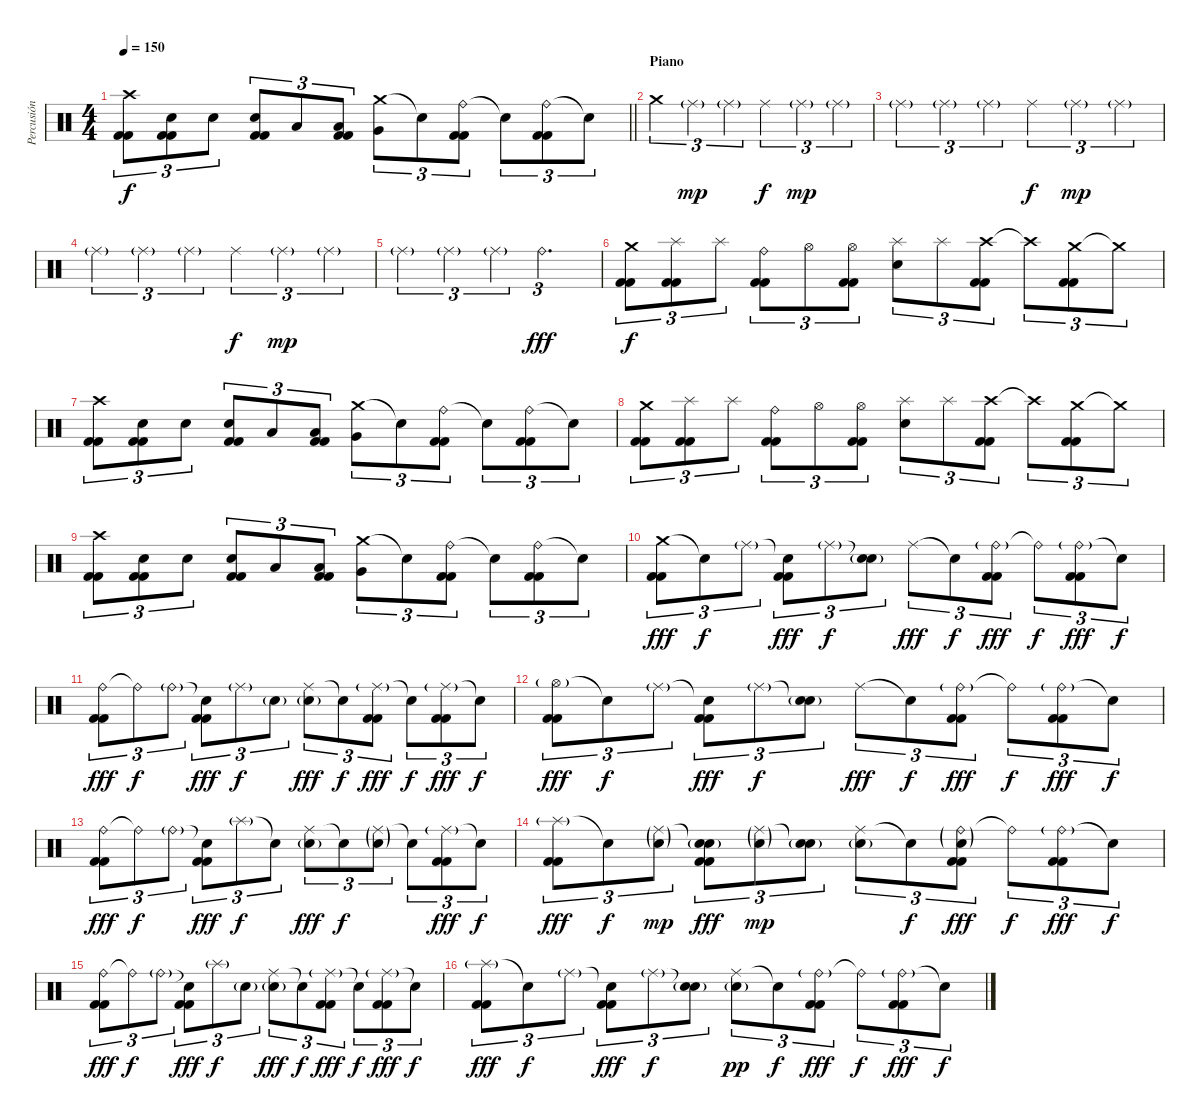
\track ("Percusión" "Percusión") {instrument percussion}
\staff {score}
\articulation defaults
\ts (4 4)
\tempo 150
\clef neutral
\barLineRight lightlight
\ks c
("Crash high (hit)" "Kick (hit) 2" "Kick (hit) 2").8{tu (3 2) dy f} ("Electric Snare (hit)" "Kick (hit) 2" "Kick (hit) 2").8{tu (3 2)} "Electric Snare (hit)".8{tu (3 2)} ("Electric Snare (hit)" "Kick (hit) 2" "Kick (hit) 2").8{tu (3 2)} "Low Tom (hit)".8{tu (3 2)} ("Low Tom (hit)" "Kick (hit) 2" "Kick (hit) 2").8{tu (3 2)} ("Crash medium (hit)" "Very Low Tom (hit)").8{tu (3 2)} "Snare (hit)"{t}.8{tu (3 2)} ("Ride (bell)" "Kick (hit) 2" "Kick (hit) 2").8{tu (3 2)} "Snare (hit)"{t}.8{tu (3 2)} ("Ride (bell)" "Kick (hit) 2" "Kick (hit) 2").8{tu (3 2)} "Snare (hit)"{t}.8{tu (3 2)} |
\section ("" "Piano")
"Crash medium (hit)".4{tu (3 2)} "Ride (middle)"{g}.4{tu (3 2) dy mp} "Ride (middle)"{g}.4{tu (3 2)} "Ride (middle)".4{tu (3 2) dy f} "Ride (middle)"{g}.4{tu (3 2) dy mp} "Ride (middle)"{g}.4{tu (3 2)} |
"Ride (middle)"{g}.4{tu (3 2)} "Ride (middle)"{g}.4{tu (3 2)} "Ride (middle)"{g}.4{tu (3 2)} "Ride (middle)".4{tu (3 2) dy f} "Ride (middle)"{g}.4{tu (3 2) dy mp} "Ride (middle)"{g}.4{tu (3 2)} |
"Ride (middle)"{g}.4{tu (3 2)} "Ride (middle)"{g}.4{tu (3 2)} "Ride (middle)"{g}.4{tu (3 2)} "Ride (middle)".4{tu (3 2) dy f} "Ride (middle)"{g}.4{tu (3 2) dy mp} "Ride (middle)"{g}.4{tu (3 2)} |
"Ride (middle)"{g}.4{tu (3 2)} "Ride (middle)"{g}.4{tu (3 2)} "Ride (middle)"{g}.4{tu (3 2)} "Ride (bell)".2{d tu (3 2) dy fff} |
("Crash medium (hit)" "Kick (hit) 2" "Kick (hit) 2").8{tu (3 2) dy f} ("Splash (hit)" "Kick (hit) 2" "Kick (hit) 2").8{tu (3 2)} "Splash (hit)".8{tu (3 2)} ("Ride (bell)" "Kick (hit) 2" "Kick (hit) 2").8{tu (3 2)} "Hi-Hat (open)".8{tu (3 2)} ("Hi-Hat (open)" "Kick (hit) 2" "Kick (hit) 2").8{tu (3 2)} ("Splash (hit)" "Electric Snare (hit)").8{tu (3 2)} "Splash (hit)".8{tu (3 2)} ("Crash high (hit)" "Kick (hit) 2" "Kick (hit) 2").8{tu (3 2)} "Crash high (hit)"{t}.8{tu (3 2)} ("Crash medium (hit)" "Kick (hit) 2" "Kick (hit) 2").8{tu (3 2)} "Crash medium (hit)"{t}.8{tu (3 2)} |
("Crash high (hit)" "Kick (hit) 2" "Kick (hit) 2").8{tu (3 2)} ("Electric Snare (hit)" "Kick (hit) 2" "Kick (hit) 2").8{tu (3 2)} "Electric Snare (hit)".8{tu (3 2)} ("Electric Snare (hit)" "Kick (hit) 2" "Kick (hit) 2").8{tu (3 2)} "Low Tom (hit)".8{tu (3 2)} ("Low Tom (hit)" "Kick (hit) 2" "Kick (hit) 2").8{tu (3 2)} ("Crash medium (hit)" "Very Low Tom (hit)").8{tu (3 2)} "Snare (hit)"{t}.8{tu (3 2)} ("Ride (bell)" "Kick (hit) 2" "Kick (hit) 2").8{tu (3 2)} "Snare (hit)"{t}.8{tu (3 2)} ("Ride (bell)" "Kick (hit) 2" "Kick (hit) 2").8{tu (3 2)} "Snare (hit)"{t}.8{tu (3 2)} |
("Crash medium (hit)" "Kick (hit) 2" "Kick (hit) 2").8{tu (3 2)} ("Splash (hit)" "Kick (hit) 2" "Kick (hit) 2").8{tu (3 2)} "Splash (hit)".8{tu (3 2)} ("Ride (bell)" "Kick (hit) 2" "Kick (hit) 2").8{tu (3 2)} "Hi-Hat (open)".8{tu (3 2)} ("Hi-Hat (open)" "Kick (hit) 2" "Kick (hit) 2").8{tu (3 2)} ("Splash (hit)" "Electric Snare (hit)").8{tu (3 2)} "Splash (hit)".8{tu (3 2)} ("Crash high (hit)" "Kick (hit) 2" "Kick (hit) 2").8{tu (3 2)} "Crash high (hit)"{t}.8{tu (3 2)} ("Crash medium (hit)" "Kick (hit) 2" "Kick (hit) 2").8{tu (3 2)} "Crash medium (hit)"{t}.8{tu (3 2)} |
("Crash high (hit)" "Kick (hit) 2" "Kick (hit) 2").8{tu (3 2)} ("Electric Snare (hit)" "Kick (hit) 2" "Kick (hit) 2").8{tu (3 2)} "Electric Snare (hit)".8{tu (3 2)} ("Electric Snare (hit)" "Kick (hit) 2" "Kick (hit) 2").8{tu (3 2)} "Low Tom (hit)".8{tu (3 2)} ("Low Tom (hit)" "Kick (hit) 2" "Kick (hit) 2").8{tu (3 2)} ("Crash medium (hit)" "Very Low Tom (hit)").8{tu (3 2)} "Snare (hit)"{t}.8{tu (3 2)} ("Ride (bell)" "Kick (hit) 2" "Kick (hit) 2").8{tu (3 2)} "Snare (hit)"{t}.8{tu (3 2)} ("Ride (bell)" "Kick (hit) 2" "Kick (hit) 2").8{tu (3 2)} "Snare (hit)"{t}.8{tu (3 2)} |
("Crash medium (hit)" "Kick (hit) 2" "Kick (hit) 2").8{tu (3 2) dy fff} "Snare (hit)"{t}.8{tu (3 2) dy f} "Ride (middle)"{g}.8{tu (3 2)} ("Snare (hit)"{t} "Kick (hit) 2" "Kick (hit) 2").8{tu (3 2) dy fff} "Ride (middle)"{g}.8{tu (3 2) dy f} ("Snare (hit)"{t} "Snare (hit) 2"{g}).8{tu (3 2)} "Ride (middle)".8{tu (3 2) dy fff} "Snare (hit)"{t}.8{tu (3 2) dy f} ("Ride (bell)"{g} "Kick (hit) 2" "Kick (hit) 2").8{tu (3 2) dy fff} "Ride (bell)"{t}.8{tu (3 2) dy f} ("Ride (bell)"{g} "Kick (hit) 2" "Kick (hit) 2").8{tu (3 2) dy fff} "Snare (hit)"{t}.8{tu (3 2) dy f} |
("Ride (bell)" "Kick (hit) 2" "Kick (hit) 2").8{tu (3 2) dy fff} "Ride (bell)"{t}.8{tu (3 2) dy f} "Ride (bell)"{g}.8{tu (3 2)} ("Snare (hit)"{t} "Kick (hit) 2" "Kick (hit) 2").8{tu (3 2) dy fff} "Ride (middle)"{g}.8{tu (3 2) dy f} "Snare (hit) 2"{g}.8{tu (3 2)} ("Ride (middle)" "Snare (hit) 2"{g}).8{tu (3 2) dy fff} "Snare (hit)"{t}.8{tu (3 2) dy f} ("Ride (middle)"{g} "Kick (hit) 2" "Kick (hit) 2").8{tu (3 2) dy fff} "Snare (hit)"{t}.8{tu (3 2) dy f} ("Ride (middle)"{g} "Kick (hit) 2" "Kick (hit) 2").8{tu (3 2) dy fff} "Snare (hit)"{t}.8{tu (3 2) dy f} |
("Hi-Hat (open)"{g} "Kick (hit) 2" "Kick (hit) 2").8{tu (3 2) dy fff} "Snare (hit)"{t}.8{tu (3 2) dy f} "Ride (middle)"{g}.8{tu (3 2)} ("Snare (hit)"{t} "Kick (hit) 2" "Kick (hit) 2").8{tu (3 2) dy fff} "Ride (middle)"{g}.8{tu (3 2) dy f} ("Snare (hit)"{t} "Snare (hit) 2"{g}).8{tu (3 2)} "Ride (middle)".8{tu (3 2) dy fff} "Snare (hit)"{t}.8{tu (3 2) dy f} ("Ride (bell)"{g} "Kick (hit) 2" "Kick (hit) 2").8{tu (3 2) dy fff} "Ride (bell)"{t}.8{tu (3 2) dy f} ("Ride (bell)"{g} "Kick (hit) 2" "Kick (hit) 2").8{tu (3 2) dy fff} "Snare (hit)"{t}.8{tu (3 2) dy f} |
("Ride (bell)" "Kick (hit) 2" "Kick (hit) 2").8{tu (3 2) dy fff} "Ride (bell)"{t}.8{tu (3 2) dy f} "Ride (bell)"{g}.8{tu (3 2)} ("Snare (hit)"{t} "Kick (hit) 2" "Kick (hit) 2").8{tu (3 2) dy fff} "Splash (hit)"{g}.8{tu (3 2) dy f} "Snare (hit)"{t}.8{tu (3 2)} ("Ride (middle)" "Snare (hit) 2"{g}).8{tu (3 2) dy fff} "Snare (hit)"{t}.8{tu (3 2) dy f} ("Ride (middle)"{g} "Snare (hit) 2"{g}).8{tu (3 2)} "Snare (hit)"{t}.8{tu (3 2)} ("Ride (middle)"{g} "Kick (hit) 2" "Kick (hit) 2").8{tu (3 2) dy fff} "Snare (hit)"{t}.8{tu (3 2) dy f} |
("Splash (hit)"{g} "Kick (hit) 2" "Kick (hit) 2").8{tu (3 2) dy fff} "Snare (hit)"{t}.8{tu (3 2) dy f} ("Ride (middle)"{g} "Electric Snare (hit)"{g}).8{tu (3 2) dy mp} ("Snare (hit)"{t} "Electric Snare (hit)"{g} "Kick (hit) 2" "Kick (hit) 2").8{tu (3 2) dy fff} ("Ride (middle)"{g} "Electric Snare (hit)"{g}).8{tu (3 2) dy mp} ("Snare (hit)"{t} "Electric Snare (hit)"{g}).8{tu (3 2)} ("Ride (middle)" "Electric Snare (hit)"{g}).8{tu (3 2)} "Snare (hit)"{t}.8{tu (3 2) dy f} ("Ride (bell)"{g} "Electric Snare (hit)"{g} "Kick (hit) 2" "Kick (hit) 2").8{tu (3 2) dy fff} "Ride (bell)"{t}.8{tu (3 2) dy f} ("Ride (bell)"{g} "Kick (hit) 2" "Kick (hit) 2").8{tu (3 2) dy fff} "Snare (hit)"{t}.8{tu (3 2) dy f} |
("Ride (bell)" "Kick (hit) 2" "Kick (hit) 2").8{tu (3 2) dy fff} "Ride (bell)"{t}.8{tu (3 2) dy f} "Ride (bell)"{g}.8{tu (3 2)} ("Snare (hit)"{t} "Kick (hit) 2" "Kick (hit) 2").8{tu (3 2) dy fff} "Splash (hit)"{g}.8{tu (3 2) dy f} "Snare (hit) 2"{g}.8{tu (3 2)} ("Ride (middle)" "Snare (hit) 2"{g}).8{tu (3 2) dy fff} "Snare (hit)"{t}.8{tu (3 2) dy f} ("Ride (middle)"{g} "Kick (hit) 2" "Kick (hit) 2").8{tu (3 2) dy fff} "Snare (hit)"{t}.8{tu (3 2) dy f} ("Ride (middle)"{g} "Kick (hit) 2" "Kick (hit) 2").8{tu (3 2) dy fff} "Snare (hit)"{t}.8{tu (3 2) dy f} |
("Splash (hit)"{g} "Kick (hit) 2" "Kick (hit) 2").8{tu (3 2) dy fff} "Snare (hit)"{t}.8{tu (3 2) dy f} "Ride (middle)"{g}.8{tu (3 2)} ("Snare (hit)"{t} "Kick (hit) 2" "Kick (hit) 2").8{tu (3 2) dy fff} "Ride (middle)"{g}.8{tu (3 2) dy f} ("Snare (hit)"{t} "Snare (hit) 2"{g}).8{tu (3 2)} ("Ride (middle)" "Snare (hit) 2"{g}).8{tu (3 2) dy pp} "Snare (hit)"{t}.8{tu (3 2) dy f} ("Ride (bell)"{g} "Kick (hit) 2" "Kick (hit) 2").8{tu (3 2) dy fff} "Ride (bell)"{t}.8{tu (3 2) dy f} ("Ride (bell)"{g} "Kick (hit) 2" "Kick (hit) 2").8{tu (3 2) dy fff} "Snare (hit)"{t}.8{tu (3 2) dy f}
